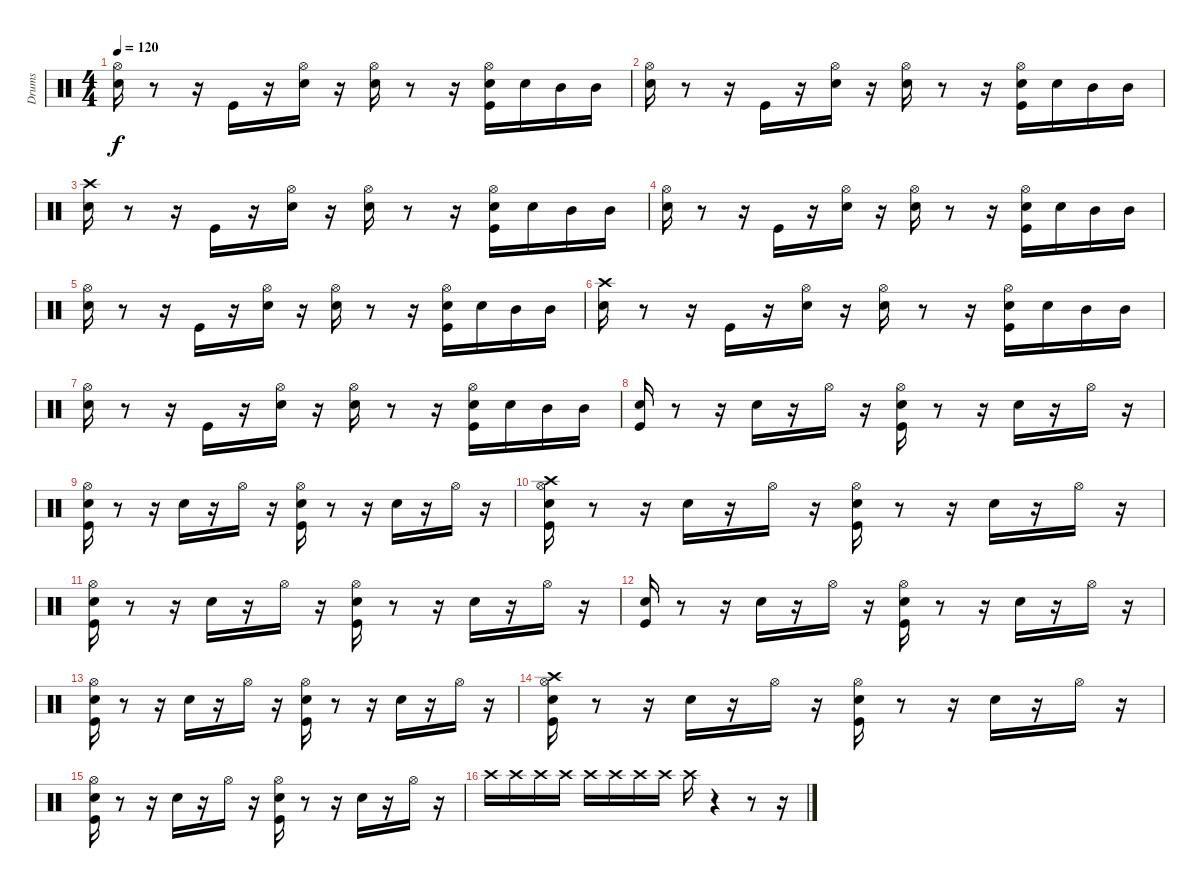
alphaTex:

\track ("Drums" "Drums") {instrument percussion}
\staff {score}
\articulation defaults
\ts (4 4)
\tempo 120
\clef neutral
\ks c
("Hi-Hat (open)" "Electric Snare (hit)").16{dy f} r.8 r.16 "Kick (hit)".16 r.16 ("Hi-Hat (open)" "Electric Snare (hit)").16 r.16 ("Hi-Hat (open)" "Electric Snare (hit)").16 r.8 r.16 ("Hi-Hat (open)" "Kick (hit)" "Snare (hit) 2").16 "Snare (hit) 2".16 "Mid Tom (hit)".16 "Mid Tom (hit)".16 |
("Hi-Hat (open)" "Electric Snare (hit)").16 r.8 r.16 "Kick (hit)".16 r.16 ("Hi-Hat (open)" "Electric Snare (hit)").16 r.16 ("Hi-Hat (open)" "Electric Snare (hit)").16 r.8 r.16 ("Hi-Hat (open)" "Kick (hit)" "Snare (hit) 2").16 "Snare (hit) 2".16 "Mid Tom (hit)".16 "Mid Tom (hit)".16 |
("Crash high (hit)" "Electric Snare (hit)").16 r.8 r.16 "Kick (hit)".16 r.16 ("Hi-Hat (open)" "Electric Snare (hit)").16 r.16 ("Hi-Hat (open)" "Electric Snare (hit)").16 r.8 r.16 ("Hi-Hat (open)" "Kick (hit)" "Snare (hit) 2").16 "Snare (hit) 2".16 "Mid Tom (hit)".16 "Mid Tom (hit)".16 |
("Hi-Hat (open)" "Electric Snare (hit)").16 r.8 r.16 "Kick (hit)".16 r.16 ("Hi-Hat (open)" "Electric Snare (hit)").16 r.16 ("Hi-Hat (open)" "Electric Snare (hit)").16 r.8 r.16 ("Hi-Hat (open)" "Kick (hit)" "Snare (hit) 2").16 "Snare (hit) 2".16 "Mid Tom (hit)".16 "Mid Tom (hit)".16 |
("Hi-Hat (open)" "Electric Snare (hit)").16 r.8 r.16 "Kick (hit)".16 r.16 ("Hi-Hat (open)" "Electric Snare (hit)").16 r.16 ("Hi-Hat (open)" "Electric Snare (hit)").16 r.8 r.16 ("Hi-Hat (open)" "Kick (hit)" "Snare (hit) 2").16 "Snare (hit) 2".16 "Mid Tom (hit)".16 "Mid Tom (hit)".16 |
("Crash high (hit)" "Electric Snare (hit)").16 r.8 r.16 "Kick (hit)".16 r.16 ("Hi-Hat (open)" "Electric Snare (hit)").16 r.16 ("Hi-Hat (open)" "Electric Snare (hit)").16 r.8 r.16 ("Hi-Hat (open)" "Kick (hit)" "Snare (hit) 2").16 "Snare (hit) 2".16 "Mid Tom (hit)".16 "Mid Tom (hit)".16 |
("Hi-Hat (open)" "Electric Snare (hit)").16 r.8 r.16 "Kick (hit)".16 r.16 ("Hi-Hat (open)" "Electric Snare (hit)").16 r.16 ("Hi-Hat (open)" "Electric Snare (hit)").16 r.8 r.16 ("Hi-Hat (open)" "Kick (hit)" "Snare (hit) 2").16 "Snare (hit) 2".16 "Mid Tom (hit)".16 "Mid Tom (hit)".16 |
("Kick (hit)" "Electric Snare (hit)").16 r.8 r.16 "Electric Snare (hit)".16 r.16 "Hi-Hat (open)".16 r.16 ("Kick (hit)" "Hi-Hat (open)" "Electric Snare (hit)").16 r.8 r.16 "Electric Snare (hit)".16 r.16 "Hi-Hat (open)".16 r.16 |
("Kick (hit)" "Electric Snare (hit)" "Hi-Hat (open)").16 r.8 r.16 "Electric Snare (hit)".16 r.16 "Hi-Hat (open)".16 r.16 ("Kick (hit)" "Hi-Hat (open)" "Electric Snare (hit)").16 r.8 r.16 "Electric Snare (hit)".16 r.16 "Hi-Hat (open)".16 r.16 |
("Crash high (hit)" "Hi-Hat (open)" "Kick (hit)" "Electric Snare (hit)").16 r.8 r.16 "Electric Snare (hit)".16 r.16 "Hi-Hat (open)".16 r.16 ("Kick (hit)" "Hi-Hat (open)" "Electric Snare (hit)").16 r.8 r.16 "Electric Snare (hit)".16 r.16 "Hi-Hat (open)".16 r.16 |
("Kick (hit)" "Electric Snare (hit)" "Hi-Hat (open)").16 r.8 r.16 "Electric Snare (hit)".16 r.16 "Hi-Hat (open)".16 r.16 ("Kick (hit)" "Hi-Hat (open)" "Electric Snare (hit)").16 r.8 r.16 "Electric Snare (hit)".16 r.16 "Hi-Hat (open)".16 r.16 |
("Kick (hit)" "Electric Snare (hit)").16 r.8 r.16 "Electric Snare (hit)".16 r.16 "Hi-Hat (open)".16 r.16 ("Kick (hit)" "Hi-Hat (open)" "Electric Snare (hit)").16 r.8 r.16 "Electric Snare (hit)".16 r.16 "Hi-Hat (open)".16 r.16 |
("Kick (hit)" "Electric Snare (hit)" "Hi-Hat (open)").16 r.8 r.16 "Electric Snare (hit)".16 r.16 "Hi-Hat (open)".16 r.16 ("Kick (hit)" "Hi-Hat (open)" "Electric Snare (hit)").16 r.8 r.16 "Electric Snare (hit)".16 r.16 "Hi-Hat (open)".16 r.16 |
("Crash high (hit)" "Hi-Hat (open)" "Kick (hit)" "Electric Snare (hit)").16 r.8 r.16 "Electric Snare (hit)".16 r.16 "Hi-Hat (open)".16 r.16 ("Kick (hit)" "Hi-Hat (open)" "Electric Snare (hit)").16 r.8 r.16 "Electric Snare (hit)".16 r.16 "Hi-Hat (open)".16 r.16 |
("Kick (hit)" "Electric Snare (hit)" "Hi-Hat (open)").16 r.8 r.16 "Electric Snare (hit)".16 r.16 "Hi-Hat (open)".16 r.16 ("Kick (hit)" "Hi-Hat (open)" "Electric Snare (hit)").16 r.8 r.16 "Electric Snare (hit)".16 r.16 "Hi-Hat (open)".16 r.16 |
"Crash high (hit)".16 "Crash high (hit)".16 "Crash high (hit)".16 "Crash high (hit)".16 "Crash high (hit)".16 "Crash high (hit)".16 "Crash high (hit)".16 "Crash high (hit)".16 "Crash high (hit)".16 r.4 r.8 r.16
